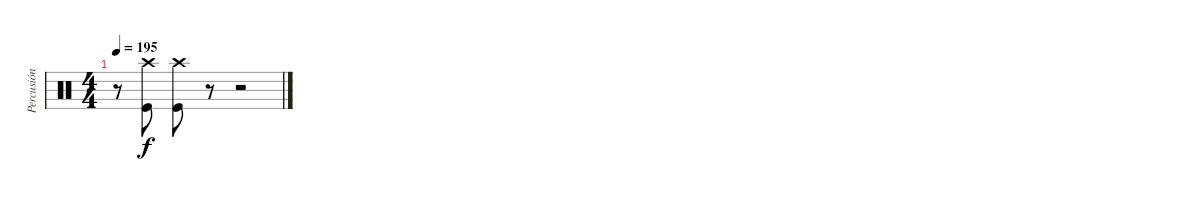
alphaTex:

\track ("Percusión" "Percusión") {instrument percussion}
\staff {score}
\articulation defaults
\ts (4 4)
\tempo 195
\clef neutral
\ks c
r.8{dy f} ("Crash high (hit)" "Kick (hit)").8 ("Crash high (hit)" "Kick (hit)").8 r.8 r.2
